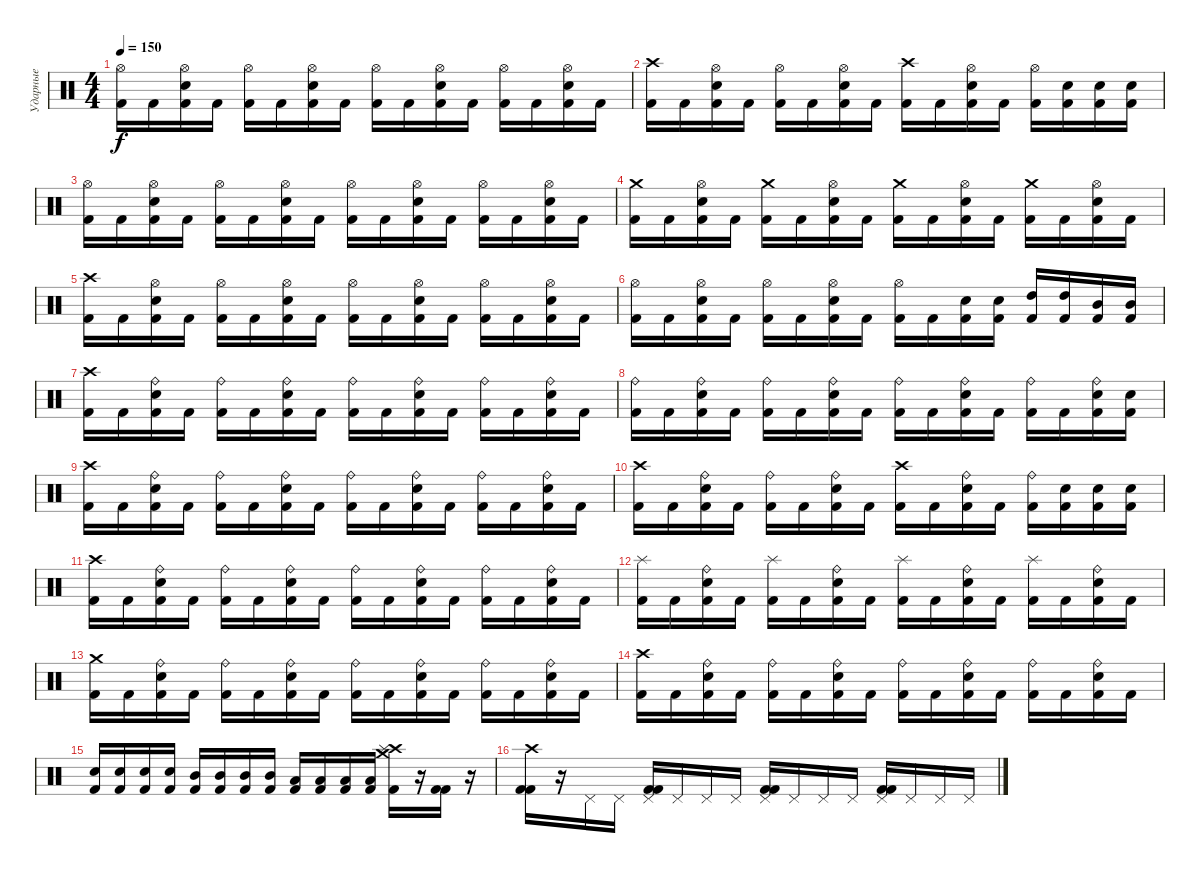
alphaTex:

\track ("Ударные" "Ударные") {instrument percussion}
\staff {score}
\articulation defaults
\ts (4 4)
\tempo 150
\clef neutral
\ks c
("Hi-Hat (open)" "Kick (hit) 2").16{dy f} "Kick (hit) 2".16 ("Hi-Hat (open)" "Electric Snare (hit)" "Kick (hit) 2").16 "Kick (hit) 2".16 ("Hi-Hat (open)" "Kick (hit) 2").16 "Kick (hit) 2".16 ("Hi-Hat (open)" "Electric Snare (hit)" "Kick (hit) 2").16 "Kick (hit) 2".16 ("Hi-Hat (open)" "Kick (hit) 2").16 "Kick (hit) 2".16 ("Hi-Hat (open)" "Electric Snare (hit)" "Kick (hit) 2").16 "Kick (hit) 2".16 ("Hi-Hat (open)" "Kick (hit) 2").16 "Kick (hit) 2".16 ("Hi-Hat (open)" "Electric Snare (hit)" "Kick (hit) 2").16 "Kick (hit) 2".16 |
("Crash high (hit)" "Kick (hit) 2").16 "Kick (hit) 2".16 ("Hi-Hat (open)" "Electric Snare (hit)" "Kick (hit) 2").16 "Kick (hit) 2".16 ("Hi-Hat (open)" "Kick (hit) 2").16 "Kick (hit) 2".16 ("Hi-Hat (open)" "Electric Snare (hit)" "Kick (hit) 2").16 "Kick (hit) 2".16 ("Crash high (hit)" "Kick (hit) 2").16 "Kick (hit) 2".16 ("Hi-Hat (open)" "Electric Snare (hit)" "Kick (hit) 2").16 "Kick (hit) 2".16 ("Hi-Hat (open)" "Kick (hit) 2").16 ("Electric Snare (hit)" "Kick (hit) 2").16 ("Electric Snare (hit)" "Kick (hit) 2").16 ("Electric Snare (hit)" "Kick (hit) 2").16 |
("Hi-Hat (open)" "Kick (hit) 2").16 "Kick (hit) 2".16 ("Hi-Hat (open)" "Electric Snare (hit)" "Kick (hit) 2").16 "Kick (hit) 2".16 ("Hi-Hat (open)" "Kick (hit) 2").16 "Kick (hit) 2".16 ("Hi-Hat (open)" "Electric Snare (hit)" "Kick (hit) 2").16 "Kick (hit) 2".16 ("Hi-Hat (open)" "Kick (hit) 2").16 "Kick (hit) 2".16 ("Hi-Hat (open)" "Electric Snare (hit)" "Kick (hit) 2").16 "Kick (hit) 2".16 ("Hi-Hat (open)" "Kick (hit) 2").16 "Kick (hit) 2".16 ("Hi-Hat (open)" "Electric Snare (hit)" "Kick (hit) 2").16 "Kick (hit) 2".16 |
("Crash medium (hit)" "Kick (hit) 2").16 "Kick (hit) 2".16 ("Hi-Hat (open)" "Electric Snare (hit)" "Kick (hit) 2").16 "Kick (hit) 2".16 ("Crash medium (hit)" "Kick (hit) 2").16 "Kick (hit) 2".16 ("Hi-Hat (open)" "Electric Snare (hit)" "Kick (hit) 2").16 "Kick (hit) 2".16 ("Crash medium (hit)" "Kick (hit) 2").16 "Kick (hit) 2".16 ("Hi-Hat (open)" "Electric Snare (hit)" "Kick (hit) 2").16 "Kick (hit) 2".16 ("Crash medium (hit)" "Kick (hit) 2").16 "Kick (hit) 2".16 ("Hi-Hat (open)" "Electric Snare (hit)" "Kick (hit) 2").16 "Kick (hit) 2".16 |
("Crash high (hit)" "Kick (hit) 2").16 "Kick (hit) 2".16 ("Hi-Hat (open)" "Electric Snare (hit)" "Kick (hit) 2").16 "Kick (hit) 2".16 ("Hi-Hat (open)" "Kick (hit) 2").16 "Kick (hit) 2".16 ("Hi-Hat (open)" "Electric Snare (hit)" "Kick (hit) 2").16 "Kick (hit) 2".16 ("Hi-Hat (open)" "Kick (hit) 2").16 "Kick (hit) 2".16 ("Hi-Hat (open)" "Electric Snare (hit)" "Kick (hit) 2").16 "Kick (hit) 2".16 ("Hi-Hat (open)" "Kick (hit) 2").16 "Kick (hit) 2".16 ("Hi-Hat (open)" "Electric Snare (hit)" "Kick (hit) 2").16 "Kick (hit) 2".16 |
("Hi-Hat (open)" "Kick (hit) 2").16 "Kick (hit) 2".16 ("Hi-Hat (open)" "Electric Snare (hit)" "Kick (hit) 2").16 "Kick (hit) 2".16 ("Hi-Hat (open)" "Kick (hit) 2").16 "Kick (hit) 2".16 ("Hi-Hat (open)" "Electric Snare (hit)" "Kick (hit) 2").16 "Kick (hit) 2".16 ("Hi-Hat (open)" "Kick (hit) 2").16 "Kick (hit) 2".16 ("Electric Snare (hit)" "Kick (hit) 2").16 ("Electric Snare (hit)" "Kick (hit) 2").16 ("High Tom (hit)" "Kick (hit) 2").16 ("High Tom (hit)" "Kick (hit) 2").16 ("Mid Tom (hit)" "Kick (hit) 2").16 ("Mid Tom (hit)" "Kick (hit) 2").16 |
("Crash high (hit)" "Kick (hit) 2").16 "Kick (hit) 2".16 ("Ride (bell)" "Electric Snare (hit)" "Kick (hit) 2").16 "Kick (hit) 2".16 ("Ride (bell)" "Kick (hit) 2").16 "Kick (hit) 2".16 ("Ride (bell)" "Electric Snare (hit)" "Kick (hit) 2").16 "Kick (hit) 2".16 ("Ride (bell)" "Kick (hit) 2").16 "Kick (hit) 2".16 ("Ride (bell)" "Electric Snare (hit)" "Kick (hit) 2").16 "Kick (hit) 2".16 ("Ride (bell)" "Kick (hit) 2").16 "Kick (hit) 2".16 ("Ride (bell)" "Electric Snare (hit)" "Kick (hit) 2").16 "Kick (hit) 2".16 |
("Ride (bell)" "Kick (hit) 2").16 "Kick (hit) 2".16 ("Ride (bell)" "Electric Snare (hit)" "Kick (hit) 2").16 "Kick (hit) 2".16 ("Ride (bell)" "Kick (hit) 2").16 "Kick (hit) 2".16 ("Ride (bell)" "Electric Snare (hit)" "Kick (hit) 2").16 "Kick (hit) 2".16 ("Ride (bell)" "Kick (hit) 2").16 "Kick (hit) 2".16 ("Ride (bell)" "Electric Snare (hit)" "Kick (hit) 2").16 "Kick (hit) 2".16 ("Ride (bell)" "Kick (hit) 2").16 "Kick (hit) 2".16 ("Ride (bell)" "Electric Snare (hit)" "Kick (hit) 2").16 ("Electric Snare (hit)" "Kick (hit) 2").16 |
("Crash high (hit)" "Kick (hit) 2").16 "Kick (hit) 2".16 ("Ride (bell)" "Electric Snare (hit)" "Kick (hit) 2").16 "Kick (hit) 2".16 ("Ride (bell)" "Kick (hit) 2").16 "Kick (hit) 2".16 ("Ride (bell)" "Electric Snare (hit)" "Kick (hit) 2").16 "Kick (hit) 2".16 ("Ride (bell)" "Kick (hit) 2").16 "Kick (hit) 2".16 ("Ride (bell)" "Electric Snare (hit)" "Kick (hit) 2").16 "Kick (hit) 2".16 ("Ride (bell)" "Kick (hit) 2").16 "Kick (hit) 2".16 ("Ride (bell)" "Electric Snare (hit)" "Kick (hit) 2").16 "Kick (hit) 2".16 |
("Crash high (hit)" "Kick (hit) 2").16 "Kick (hit) 2".16 ("Ride (bell)" "Electric Snare (hit)" "Kick (hit) 2").16 "Kick (hit) 2".16 ("Ride (bell)" "Kick (hit) 2").16 "Kick (hit) 2".16 ("Ride (bell)" "Electric Snare (hit)" "Kick (hit) 2").16 "Kick (hit) 2".16 ("Crash high (hit)" "Kick (hit) 2").16 "Kick (hit) 2".16 ("Ride (bell)" "Electric Snare (hit)" "Kick (hit) 2").16 "Kick (hit) 2".16 ("Ride (bell)" "Kick (hit) 2").16 ("Electric Snare (hit)" "Kick (hit) 2").16 ("Electric Snare (hit)" "Kick (hit) 2").16 ("Electric Snare (hit)" "Kick (hit) 2").16 |
("Crash high (hit)" "Kick (hit) 2").16 "Kick (hit) 2".16 ("Ride (bell)" "Electric Snare (hit)" "Kick (hit) 2").16 "Kick (hit) 2".16 ("Ride (bell)" "Kick (hit) 2").16 "Kick (hit) 2".16 ("Ride (bell)" "Electric Snare (hit)" "Kick (hit) 2").16 "Kick (hit) 2".16 ("Ride (bell)" "Kick (hit) 2").16 "Kick (hit) 2".16 ("Ride (bell)" "Electric Snare (hit)" "Kick (hit) 2").16 "Kick (hit) 2".16 ("Ride (bell)" "Kick (hit) 2").16 "Kick (hit) 2".16 ("Ride (bell)" "Electric Snare (hit)" "Kick (hit) 2").16 "Kick (hit) 2".16 |
("Splash (hit)" "Kick (hit) 2").16 "Kick (hit) 2".16 ("Ride (bell)" "Electric Snare (hit)" "Kick (hit) 2").16 "Kick (hit) 2".16 ("Splash (hit)" "Kick (hit) 2").16 "Kick (hit) 2".16 ("Ride (bell)" "Electric Snare (hit)" "Kick (hit) 2").16 "Kick (hit) 2".16 ("Splash (hit)" "Kick (hit) 2").16 "Kick (hit) 2".16 ("Ride (bell)" "Electric Snare (hit)" "Kick (hit) 2").16 "Kick (hit) 2".16 ("Splash (hit)" "Kick (hit) 2").16 "Kick (hit) 2".16 ("Ride (bell)" "Electric Snare (hit)" "Kick (hit) 2").16 "Kick (hit) 2".16 |
("Crash medium (hit)" "Kick (hit) 2").16 "Kick (hit) 2".16 ("Ride (bell)" "Electric Snare (hit)" "Kick (hit) 2").16 "Kick (hit) 2".16 ("Ride (bell)" "Kick (hit) 2").16 "Kick (hit) 2".16 ("Ride (bell)" "Electric Snare (hit)" "Kick (hit) 2").16 "Kick (hit) 2".16 ("Ride (bell)" "Kick (hit) 2").16 "Kick (hit) 2".16 ("Ride (bell)" "Electric Snare (hit)" "Kick (hit) 2").16 "Kick (hit) 2".16 ("Ride (bell)" "Kick (hit) 2").16 "Kick (hit) 2".16 ("Ride (bell)" "Electric Snare (hit)" "Kick (hit) 2").16 "Kick (hit) 2".16 |
("Crash high (hit)" "Kick (hit) 2").16 "Kick (hit) 2".16 ("Ride (bell)" "Electric Snare (hit)" "Kick (hit) 2").16 "Kick (hit) 2".16 ("Ride (bell)" "Kick (hit) 2").16 "Kick (hit) 2".16 ("Ride (bell)" "Electric Snare (hit)" "Kick (hit) 2").16 "Kick (hit) 2".16 ("Ride (bell)" "Kick (hit) 2").16 "Kick (hit) 2".16 ("Ride (bell)" "Electric Snare (hit)" "Kick (hit) 2").16 "Kick (hit) 2".16 ("Ride (bell)" "Kick (hit) 2").16 "Kick (hit) 2".16 ("Ride (bell)" "Electric Snare (hit)" "Kick (hit) 2").16 "Kick (hit) 2".16 |
("Electric Snare (hit)" "Kick (hit) 2").16 ("Electric Snare (hit)" "Kick (hit) 2").16 ("Electric Snare (hit)" "Kick (hit) 2").16 ("Electric Snare (hit)" "Kick (hit) 2").16 ("Mid Tom (hit)" "Kick (hit) 2").16 ("Mid Tom (hit)" "Kick (hit) 2").16 ("Mid Tom (hit)" "Kick (hit) 2").16 ("Mid Tom (hit)" "Kick (hit) 2").16 ("Low Tom (hit)" "Kick (hit) 2").16 ("Low Tom (hit)" "Kick (hit) 2").16 ("Low Tom (hit)" "Kick (hit) 2").16 ("Low Tom (hit)" "Kick (hit) 2").16 ("Crash high (hit)" "Crash medium (hit)" "Splash (hit)" "Kick (hit) 2").16 r.16 ("Kick (hit) 2" "Kick (hit) 2").16 r.16 |
("Crash high (hit)" "Kick (hit) 2" "Kick (hit) 2").16 r.16 "Pedal Hi-Hat (hit)".16 "Pedal Hi-Hat (hit)".16 ("Pedal Hi-Hat (hit)" "Kick (hit) 2" "Kick (hit) 2").16 "Pedal Hi-Hat (hit)".16 "Pedal Hi-Hat (hit)".16 "Pedal Hi-Hat (hit)".16 ("Pedal Hi-Hat (hit)" "Kick (hit) 2" "Kick (hit) 2").16 "Pedal Hi-Hat (hit)".16 "Pedal Hi-Hat (hit)".16 "Pedal Hi-Hat (hit)".16 ("Pedal Hi-Hat (hit)" "Kick (hit) 2" "Kick (hit) 2").16 "Pedal Hi-Hat (hit)".16 "Pedal Hi-Hat (hit)".16 "Pedal Hi-Hat (hit)".16
